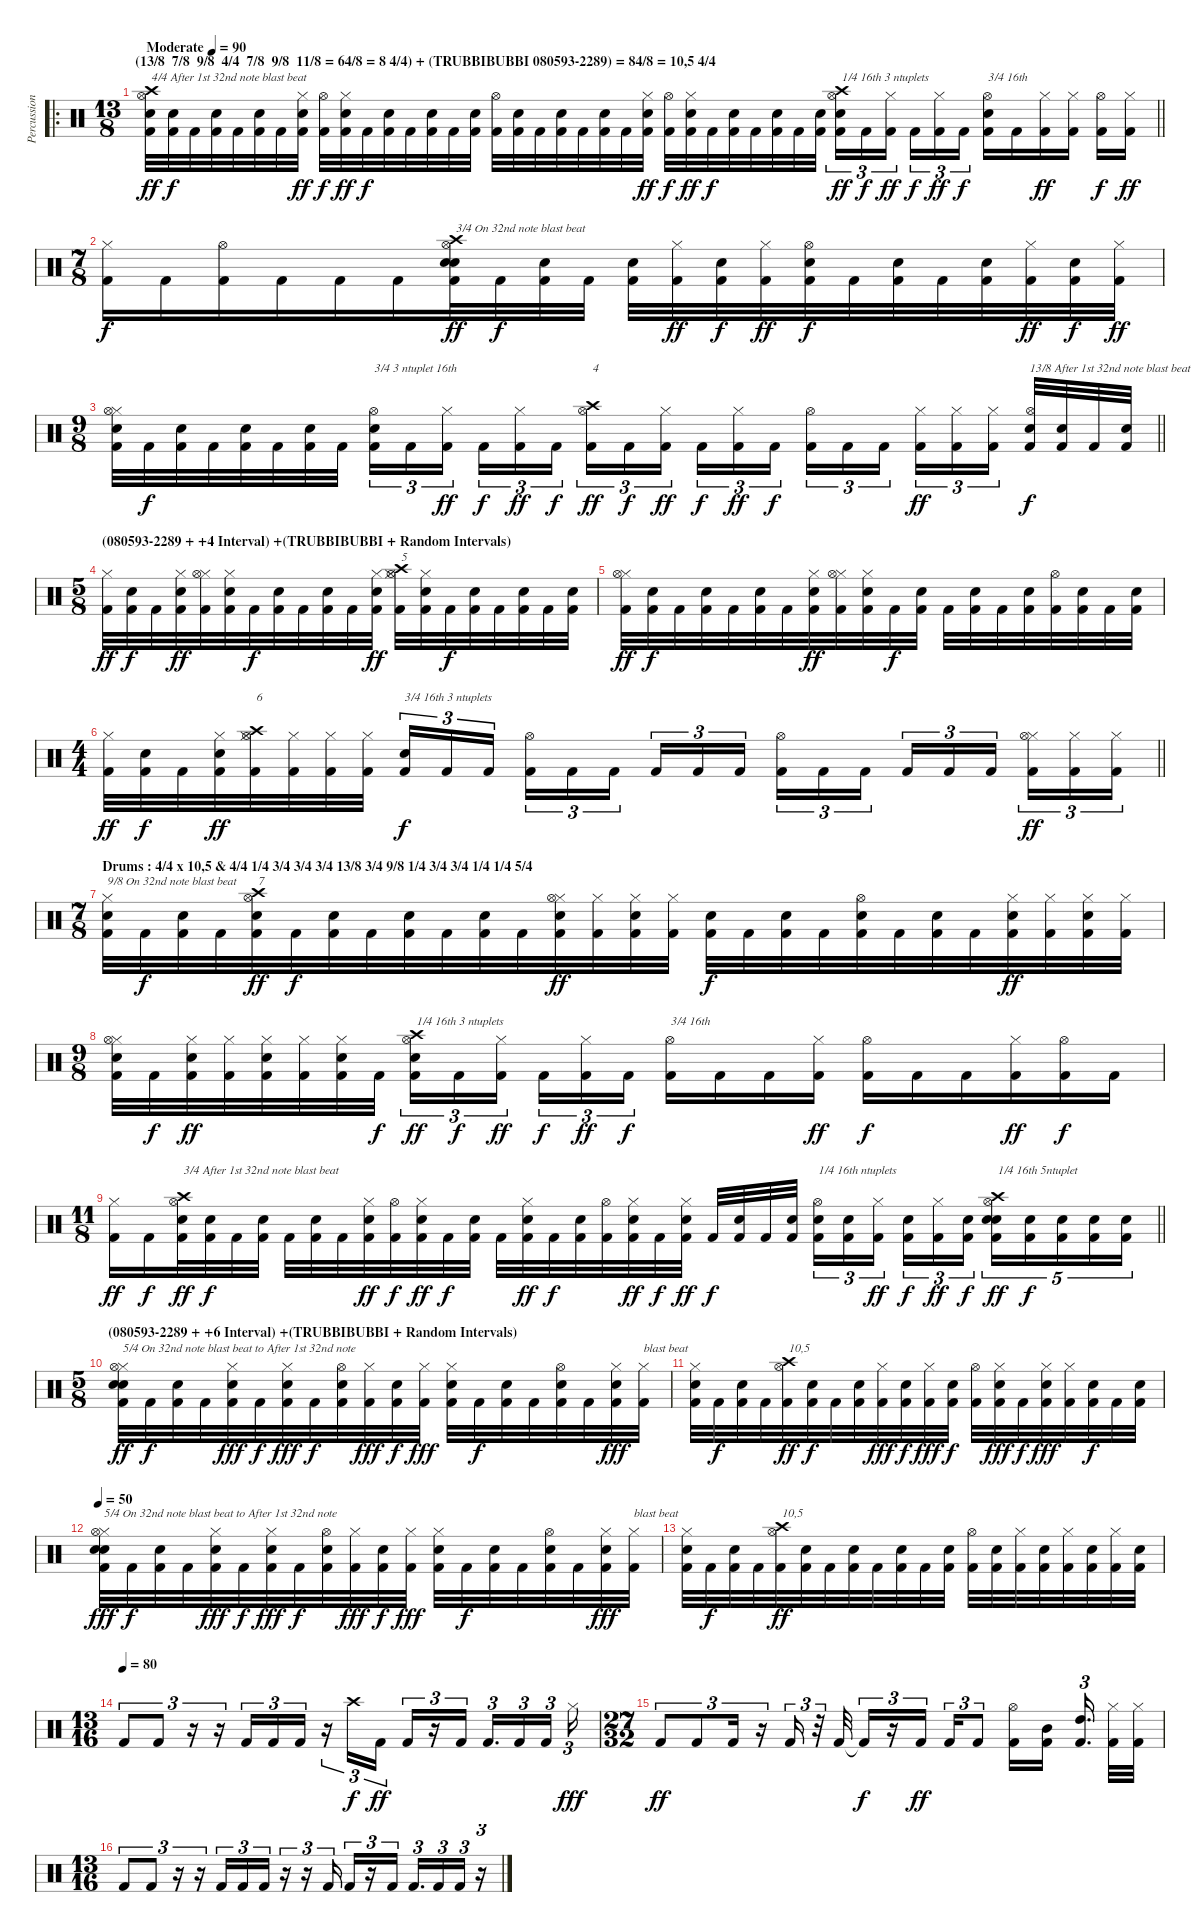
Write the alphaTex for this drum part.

\track ("Percussion" "Percussion") {instrument percussion}
\staff {score}
\articulation defaults
\ro
\ts (13 8)
\section ("" "(13/8  7/8  9/8  4/4  7/8  9/8  11/8 = 64/8 = 8 4/4) + (TRUBBIBUBBI 080593-2289) = 84/8 = 10,5 4/4 ")
\tempo (90 "Moderate")
\clef neutral
\barLineRight lightlight
\ks c
("Crash high (hit)" "Snare (hit) 2" "Hi-Hat (open)" "Kick (hit) 2").32{txt "4/4 After 1st 32nd note blast beat " dy ff} ("Electric Snare (hit)" "Kick (hit) 2").32{dy f} "Kick (hit) 2".32 ("Electric Snare (hit)" "Kick (hit) 2").32 "Kick (hit) 2".32 ("Electric Snare (hit)" "Kick (hit) 2").32 "Kick (hit) 2".32 ("Hi-Hat (closed)" "Electric Snare (hit)" "Kick (hit) 2").32{dy ff} ("Hi-Hat (open)" "Kick (hit) 2").32{dy f} ("Hi-Hat (closed)" "Electric Snare (hit)" "Kick (hit) 2").32{dy ff} "Kick (hit) 2".32{dy f} ("Electric Snare (hit)" "Kick (hit) 2").32 "Kick (hit) 2".32 ("Electric Snare (hit)" "Kick (hit) 2").32 "Kick (hit) 2".32 ("Electric Snare (hit)" "Kick (hit) 2").32 ("Hi-Hat (open)" "Kick (hit) 2").32 ("Electric Snare (hit)" "Kick (hit) 2").32 "Kick (hit) 2".32 ("Electric Snare (hit)" "Kick (hit) 2").32 "Kick (hit) 2".32 ("Electric Snare (hit)" "Kick (hit) 2").32 "Kick (hit) 2".32 ("Hi-Hat (closed)" "Electric Snare (hit)" "Kick (hit) 2").32{dy ff} ("Hi-Hat (open)" "Kick (hit) 2").32{dy f} ("Hi-Hat (closed)" "Electric Snare (hit)" "Kick (hit) 2").32{dy ff} "Kick (hit) 2".32{dy f} ("Electric Snare (hit)" "Kick (hit) 2").32 "Kick (hit) 2".32 ("Electric Snare (hit)" "Kick (hit) 2").32 "Kick (hit) 2".32 ("Electric Snare (hit)" "Kick (hit) 2").32 ("Crash high (hit)" "Snare (hit) 2" "Hi-Hat (open)" "Kick (hit) 2").16{tu (3 2) txt "1/4 16th 3 ntuplets" dy ff} "Kick (hit) 2".16{tu (3 2) dy f} ("Hi-Hat (closed)" "Kick (hit) 2").16{tu (3 2) dy ff} "Kick (hit) 2".16{tu (3 2) dy f} ("Hi-Hat (closed)" "Kick (hit) 2").16{tu (3 2) dy ff} "Kick (hit) 2".16{tu (3 2) dy f} ("Snare (hit) 2" "Hi-Hat (open)" "Kick (hit) 2").16{txt "3/4 16th"} "Kick (hit) 2".16 ("Hi-Hat (closed)" "Kick (hit) 2").16{dy ff} ("Hi-Hat (closed)" "Kick (hit) 2").16 ("Hi-Hat (open)" "Kick (hit) 2").16{dy f} ("Hi-Hat (closed)" "Kick (hit) 2").16{dy ff} |
\ts (7 8)
\section ("" "")
("Hi-Hat (closed)" "Kick (hit) 2").16{dy f} "Kick (hit) 2".16 ("Hi-Hat (open)" "Kick (hit) 2").16 "Kick (hit) 2".16 "Kick (hit) 2".16 "Kick (hit) 2".16 ("Crash high (hit)" "Snare (hit) 2" "Hi-Hat (open)" "Electric Snare (hit)" "Kick (hit) 2").32{txt "3/4 On 32nd note blast beat " dy ff} "Kick (hit) 2".32{dy f} ("Electric Snare (hit)" "Kick (hit) 2").32 "Kick (hit) 2".32 ("Electric Snare (hit)" "Kick (hit) 2").32 ("Hi-Hat (closed)" "Kick (hit) 2").32{dy ff} ("Electric Snare (hit)" "Kick (hit) 2").32{dy f} ("Hi-Hat (closed)" "Kick (hit) 2").32{dy ff} ("Hi-Hat (open)" "Electric Snare (hit)" "Kick (hit) 2").32{dy f} "Kick (hit) 2".32 ("Electric Snare (hit)" "Kick (hit) 2").32 "Kick (hit) 2".32 ("Electric Snare (hit)" "Kick (hit) 2").32 ("Hi-Hat (closed)" "Kick (hit) 2").32{dy ff} ("Electric Snare (hit)" "Kick (hit) 2").32{dy f} ("Hi-Hat (closed)" "Kick (hit) 2").32{dy ff} |
\ts (9 8)
\barLineRight lightlight
("Hi-Hat (closed)" "Hi-Hat (open)" "Electric Snare (hit)" "Kick (hit) 2").32 "Kick (hit) 2".32{dy f} ("Electric Snare (hit)" "Kick (hit) 2").32 "Kick (hit) 2".32 ("Electric Snare (hit)" "Kick (hit) 2").32 "Kick (hit) 2".32 ("Electric Snare (hit)" "Kick (hit) 2").32 "Kick (hit) 2".32{beam splitsecondary} ("Snare (hit) 2" "Hi-Hat (open)" "Kick (hit) 2").16{tu (3 2) txt "3/4 3 ntuplet 16th"} "Kick (hit) 2".16{tu (3 2)} ("Hi-Hat (closed)" "Kick (hit) 2").16{tu (3 2) dy ff} "Kick (hit) 2".16{tu (3 2) dy f} ("Hi-Hat (closed)" "Kick (hit) 2").16{tu (3 2) dy ff} "Kick (hit) 2".16{tu (3 2) dy f beam splitsecondary} ("Crash high (hit)" "Hi-Hat (open)" "Kick (hit) 2").16{tu (3 2) txt "4" dy ff} "Kick (hit) 2".16{tu (3 2) dy f} ("Hi-Hat (closed)" "Kick (hit) 2").16{tu (3 2) dy ff beam splitsecondary} "Kick (hit) 2".16{tu (3 2) dy f} ("Hi-Hat (closed)" "Kick (hit) 2").16{tu (3 2) dy ff} "Kick (hit) 2".16{tu (3 2) dy f} ("Hi-Hat (open)" "Kick (hit) 2").16{tu (3 2)} "Kick (hit) 2".16{tu (3 2)} "Kick (hit) 2".16{tu (3 2) beam splitsecondary} ("Hi-Hat (closed)" "Kick (hit) 2").16{tu (3 2) dy ff} ("Hi-Hat (closed)" "Kick (hit) 2").16{tu (3 2)} ("Hi-Hat (closed)" "Kick (hit) 2").16{tu (3 2) beam splitsecondary} ("Snare (hit) 2" "Hi-Hat (open)" "Kick (hit) 2").32{txt "13/8 After 1st 32nd note blast beat " dy f} ("Electric Snare (hit)" "Kick (hit) 2").32 "Kick (hit) 2".32 ("Electric Snare (hit)" "Kick (hit) 2").32 |
\ts (5 8)
\section ("" "(080593-2289 + +4 Interval) +(TRUBBIBUBBI + Random Intervals)")
("Hi-Hat (closed)" "Kick (hit) 2").32{dy ff} ("Electric Snare (hit)" "Kick (hit) 2").32{dy f} "Kick (hit) 2".32 ("Hi-Hat (closed)" "Electric Snare (hit)" "Kick (hit) 2").32{dy ff} ("Hi-Hat (closed)" "Hi-Hat (open)" "Kick (hit) 2").32 ("Hi-Hat (closed)" "Electric Snare (hit)" "Kick (hit) 2").32 "Kick (hit) 2".32{dy f} ("Electric Snare (hit)" "Kick (hit) 2").32 "Kick (hit) 2".32 ("Electric Snare (hit)" "Kick (hit) 2").32 "Kick (hit) 2".32 ("Hi-Hat (closed)" "Electric Snare (hit)" "Kick (hit) 2").32{dy ff} ("Crash high (hit)" "Hi-Hat (closed)" "Hi-Hat (open)" "Kick (hit) 2").32{txt "5"} ("Hi-Hat (closed)" "Electric Snare (hit)" "Kick (hit) 2").32 "Kick (hit) 2".32{dy f} ("Electric Snare (hit)" "Kick (hit) 2").32 "Kick (hit) 2".32 ("Electric Snare (hit)" "Kick (hit) 2").32 "Kick (hit) 2".32 ("Electric Snare (hit)" "Kick (hit) 2").32 |
("Hi-Hat (closed)" "Hi-Hat (open)" "Kick (hit) 2").32{dy ff} ("Electric Snare (hit)" "Kick (hit) 2").32{dy f} "Kick (hit) 2".32 ("Electric Snare (hit)" "Kick (hit) 2").32 "Kick (hit) 2".32 ("Electric Snare (hit)" "Kick (hit) 2").32 "Kick (hit) 2".32 ("Hi-Hat (closed)" "Electric Snare (hit)" "Kick (hit) 2").32{dy ff} ("Hi-Hat (closed)" "Hi-Hat (open)" "Kick (hit) 2").32 ("Hi-Hat (closed)" "Electric Snare (hit)" "Kick (hit) 2").32 "Kick (hit) 2".32{dy f} ("Electric Snare (hit)" "Kick (hit) 2").32 "Kick (hit) 2".32 ("Electric Snare (hit)" "Kick (hit) 2").32 "Kick (hit) 2".32 ("Electric Snare (hit)" "Kick (hit) 2").32 ("Hi-Hat (open)" "Kick (hit) 2").32 ("Electric Snare (hit)" "Kick (hit) 2").32 "Kick (hit) 2".32 ("Electric Snare (hit)" "Kick (hit) 2").32 |
\ts (4 4)
\barLineRight lightlight
("Hi-Hat (closed)" "Kick (hit) 2").32{dy ff} ("Electric Snare (hit)" "Kick (hit) 2").32{dy f} "Kick (hit) 2".32 ("Hi-Hat (closed)" "Electric Snare (hit)" "Kick (hit) 2").32{dy ff} ("Crash high (hit)" "Hi-Hat (closed)" "Hi-Hat (open)" "Kick (hit) 2").32{txt "6"} ("Hi-Hat (closed)" "Kick (hit) 2").32 ("Hi-Hat (closed)" "Kick (hit) 2").32 ("Hi-Hat (closed)" "Kick (hit) 2").32 ("Snare (hit) 2" "Kick (hit) 2").16{tu (3 2) txt "3/4 16th 3 ntuplets" dy f} "Kick (hit) 2".16{tu (3 2)} "Kick (hit) 2".16{tu (3 2)} ("Hi-Hat (open)" "Kick (hit) 2").16{tu (3 2)} "Kick (hit) 2".16{tu (3 2)} "Kick (hit) 2".16{tu (3 2)} "Kick (hit) 2".16{tu (3 2)} "Kick (hit) 2".16{tu (3 2)} "Kick (hit) 2".16{tu (3 2)} ("Hi-Hat (open)" "Kick (hit) 2").16{tu (3 2)} "Kick (hit) 2".16{tu (3 2)} "Kick (hit) 2".16{tu (3 2)} "Kick (hit) 2".16{tu (3 2)} "Kick (hit) 2".16{tu (3 2)} "Kick (hit) 2".16{tu (3 2)} ("Hi-Hat (closed)" "Hi-Hat (open)" "Kick (hit) 2").16{tu (3 2) dy ff} ("Hi-Hat (closed)" "Kick (hit) 2").16{tu (3 2)} ("Hi-Hat (closed)" "Kick (hit) 2").16{tu (3 2)} |
\ts (7 8)
\section ("" "Drums : 4/4 x 10,5 & 4/4 1/4 3/4 3/4 3/4 13/8 3/4 9/8 1/4 3/4 3/4 1/4 1/4 5/4")
("Hi-Hat (closed)" "Electric Snare (hit)" "Kick (hit) 2").32{txt "9/8 On 32nd note blast beat"} "Kick (hit) 2".32{dy f} ("Electric Snare (hit)" "Kick (hit) 2").32 "Kick (hit) 2".32 ("Crash high (hit)" "Hi-Hat (open)" "Electric Snare (hit)" "Kick (hit) 2").32{txt "7" dy ff} "Kick (hit) 2".32{dy f} ("Electric Snare (hit)" "Kick (hit) 2").32 "Kick (hit) 2".32 ("Electric Snare (hit)" "Kick (hit) 2").32 "Kick (hit) 2".32 ("Electric Snare (hit)" "Kick (hit) 2").32 "Kick (hit) 2".32 ("Hi-Hat (closed)" "Hi-Hat (open)" "Electric Snare (hit)" "Kick (hit) 2").32{dy ff} ("Hi-Hat (closed)" "Kick (hit) 2").32 ("Hi-Hat (closed)" "Electric Snare (hit)" "Kick (hit) 2").32 ("Hi-Hat (closed)" "Kick (hit) 2").32 ("Electric Snare (hit)" "Kick (hit) 2").32{dy f} "Kick (hit) 2".32 ("Electric Snare (hit)" "Kick (hit) 2").32 "Kick (hit) 2".32 ("Hi-Hat (open)" "Electric Snare (hit)" "Kick (hit) 2").32 "Kick (hit) 2".32 ("Electric Snare (hit)" "Kick (hit) 2").32 "Kick (hit) 2".32 ("Hi-Hat (closed)" "Electric Snare (hit)" "Kick (hit) 2").32{dy ff} ("Hi-Hat (closed)" "Kick (hit) 2").32 ("Hi-Hat (closed)" "Electric Snare (hit)" "Kick (hit) 2").32 ("Hi-Hat (closed)" "Kick (hit) 2").32 |
\ts (9 8)
("Hi-Hat (closed)" "Hi-Hat (open)" "Electric Snare (hit)" "Kick (hit) 2").32 "Kick (hit) 2".32{dy f} ("Hi-Hat (closed)" "Electric Snare (hit)" "Kick (hit) 2").32{dy ff} ("Hi-Hat (closed)" "Kick (hit) 2").32 ("Hi-Hat (closed)" "Electric Snare (hit)" "Kick (hit) 2").32 ("Hi-Hat (closed)" "Kick (hit) 2").32 ("Hi-Hat (closed)" "Electric Snare (hit)" "Kick (hit) 2").32 "Kick (hit) 2".32{dy f beam splitsecondary} ("Crash high (hit)" "Snare (hit) 2" "Hi-Hat (open)" "Kick (hit) 2").16{tu (3 2) txt "1/4 16th 3 ntuplets" dy ff} "Kick (hit) 2".16{tu (3 2) dy f} ("Hi-Hat (closed)" "Kick (hit) 2").16{tu (3 2) dy ff} "Kick (hit) 2".16{tu (3 2) dy f} ("Hi-Hat (closed)" "Kick (hit) 2").16{tu (3 2) dy ff} "Kick (hit) 2".16{tu (3 2) dy f beam splitsecondary} ("Hi-Hat (open)" "Kick (hit) 2").16{txt "3/4 16th"} "Kick (hit) 2".16 "Kick (hit) 2".16 ("Hi-Hat (closed)" "Kick (hit) 2").16{dy ff} ("Hi-Hat (open)" "Kick (hit) 2").16{dy f} "Kick (hit) 2".16 "Kick (hit) 2".16 ("Hi-Hat (closed)" "Kick (hit) 2").16{dy ff} ("Hi-Hat (open)" "Kick (hit) 2").16{dy f} "Kick (hit) 2".16 |
\ts (11 8)
\barLineRight lightlight
("Hi-Hat (closed)" "Kick (hit) 2").16{dy ff} "Kick (hit) 2".16{dy f} ("Crash high (hit)" "Snare (hit) 2" "Hi-Hat (open)" "Kick (hit) 2").32{txt "3/4 After 1st 32nd note blast beat" dy ff} ("Electric Snare (hit)" "Kick (hit) 2").32{dy f} "Kick (hit) 2".32 ("Electric Snare (hit)" "Kick (hit) 2").32 "Kick (hit) 2".32 ("Electric Snare (hit)" "Kick (hit) 2").32 "Kick (hit) 2".32 ("Hi-Hat (closed)" "Electric Snare (hit)" "Kick (hit) 2").32{dy ff} ("Hi-Hat (open)" "Kick (hit) 2").32{dy f} ("Hi-Hat (closed)" "Electric Snare (hit)" "Kick (hit) 2").32{dy ff} "Kick (hit) 2".32{dy f} ("Electric Snare (hit)" "Kick (hit) 2").32 "Kick (hit) 2".32 ("Hi-Hat (closed)" "Electric Snare (hit)" "Kick (hit) 2").32{dy ff} "Kick (hit) 2".32{dy f} ("Electric Snare (hit)" "Kick (hit) 2").32 ("Hi-Hat (open)" "Kick (hit) 2").32 ("Hi-Hat (closed)" "Electric Snare (hit)" "Kick (hit) 2").32{dy ff} "Kick (hit) 2".32{dy f} ("Hi-Hat (closed)" "Electric Snare (hit)" "Kick (hit) 2").32{dy ff} "Kick (hit) 2".32{dy f} ("Electric Snare (hit)" "Kick (hit) 2").32 "Kick (hit) 2".32 ("Electric Snare (hit)" "Kick (hit) 2").32 ("Snare (hit) 2" "Hi-Hat (open)" "Kick (hit) 2").16{tu (3 2) txt "1/4 16th ntuplets"} ("Electric Snare (hit)" "Kick (hit) 2").16{tu (3 2)} ("Hi-Hat (closed)" "Kick (hit) 2").16{tu (3 2) dy ff} ("Electric Snare (hit)" "Kick (hit) 2").16{tu (3 2) dy f} ("Hi-Hat (closed)" "Kick (hit) 2").16{tu (3 2) dy ff} ("Electric Snare (hit)" "Kick (hit) 2").16{tu (3 2) dy f} ("Crash high (hit)" "Snare (hit) 2" "Hi-Hat (open)" "Electric Snare (hit)" "Kick (hit) 2").16{tu (5 4) txt "1/4 16th 5ntuplet" dy ff} ("Electric Snare (hit)" "Kick (hit) 2").16{tu (5 4) dy f} ("Electric Snare (hit)" "Kick (hit) 2").16{tu (5 4)} ("Electric Snare (hit)" "Kick (hit) 2").16{tu (5 4)} ("Electric Snare (hit)" "Kick (hit) 2").16{tu (5 4)} |
\ts (5 8)
\section ("" "(080593-2289 + +6 Interval) +(TRUBBIBUBBI + Random Intervals)")
("Hi-Hat (closed)" "Snare (hit) 2" "Hi-Hat (open)" "Electric Snare (hit)" "Kick (hit) 2").32{txt "5/4 On 32nd note blast beat to After 1st 32nd note" dy ff} "Kick (hit) 2".32{dy f} ("Electric Snare (hit)" "Kick (hit) 2").32 "Kick (hit) 2".32 ("Hi-Hat (closed)" "Electric Snare (hit)" "Kick (hit) 2").32{dy fff} "Kick (hit) 2".32{dy f} ("Hi-Hat (closed)" "Electric Snare (hit)" "Kick (hit) 2").32{dy fff} "Kick (hit) 2".32{dy f} ("Hi-Hat (open)" "Electric Snare (hit)" "Kick (hit) 2").32 ("Hi-Hat (closed)" "Kick (hit) 2").32{dy fff} ("Electric Snare (hit)" "Kick (hit) 2").32{dy f} ("Hi-Hat (closed)" "Kick (hit) 2").32{dy fff} ("Hi-Hat (closed)" "Electric Snare (hit)" "Kick (hit) 2").32 "Kick (hit) 2".32{dy f} ("Electric Snare (hit)" "Kick (hit) 2").32 "Kick (hit) 2".32 ("Hi-Hat (open)" "Electric Snare (hit)" "Kick (hit) 2").32 "Kick (hit) 2".32 ("Hi-Hat (closed)" "Electric Snare (hit)" "Kick (hit) 2").32{dy fff} ("Hi-Hat (closed)" "Kick (hit) 2").32{txt "blast beat"} |
("Hi-Hat (closed)" "Electric Snare (hit)" "Kick (hit) 2").32 "Kick (hit) 2".32{dy f} ("Electric Snare (hit)" "Kick (hit) 2").32 "Kick (hit) 2".32 ("Crash high (hit)" "Hi-Hat (open)" "Kick (hit) 2").32{txt "10,5" dy ff} ("Electric Snare (hit)" "Kick (hit) 2").32{dy f} "Kick (hit) 2".32 ("Electric Snare (hit)" "Kick (hit) 2").32 ("Hi-Hat (closed)" "Kick (hit) 2").32{dy fff} ("Electric Snare (hit)" "Kick (hit) 2").32{dy f} ("Hi-Hat (closed)" "Kick (hit) 2").32{dy fff} ("Electric Snare (hit)" "Kick (hit) 2").32{dy f} ("Hi-Hat (open)" "Kick (hit) 2").32 ("Hi-Hat (closed)" "Electric Snare (hit)" "Kick (hit) 2").32{dy fff} "Kick (hit) 2".32{dy f} ("Hi-Hat (closed)" "Electric Snare (hit)" "Kick (hit) 2").32{dy fff} ("Hi-Hat (closed)" "Kick (hit) 2").32 ("Electric Snare (hit)" "Kick (hit) 2").32{dy f} "Kick (hit) 2".32 ("Electric Snare (hit)" "Kick (hit) 2").32 |
\tempo 50
("Hi-Hat (closed)" "Snare (hit) 2" "Hi-Hat (open)" "Electric Snare (hit)" "Kick (hit) 2").32{txt "5/4 On 32nd note blast beat to After 1st 32nd note" dy fff} "Kick (hit) 2".32{dy f} ("Electric Snare (hit)" "Kick (hit) 2").32 "Kick (hit) 2".32 ("Hi-Hat (closed)" "Electric Snare (hit)" "Kick (hit) 2").32{dy fff} "Kick (hit) 2".32{dy f} ("Hi-Hat (closed)" "Electric Snare (hit)" "Kick (hit) 2").32{dy fff} "Kick (hit) 2".32{dy f} ("Hi-Hat (open)" "Electric Snare (hit)" "Kick (hit) 2").32 ("Hi-Hat (closed)" "Kick (hit) 2").32{dy fff} ("Electric Snare (hit)" "Kick (hit) 2").32{dy f} ("Hi-Hat (closed)" "Kick (hit) 2").32{dy fff} ("Hi-Hat (closed)" "Electric Snare (hit)" "Kick (hit) 2").32 "Kick (hit) 2".32{dy f} ("Electric Snare (hit)" "Kick (hit) 2").32 "Kick (hit) 2".32 ("Hi-Hat (open)" "Electric Snare (hit)" "Kick (hit) 2").32 "Kick (hit) 2".32 ("Hi-Hat (closed)" "Electric Snare (hit)" "Kick (hit) 2").32{dy fff} ("Hi-Hat (closed)" "Kick (hit) 2").32{txt "blast beat"} |
("Hi-Hat (closed)" "Electric Snare (hit)" "Kick (hit) 2").32 "Kick (hit) 2".32{dy f} ("Electric Snare (hit)" "Kick (hit) 2").32 "Kick (hit) 2".32 ("Crash high (hit)" "Hi-Hat (open)" "Kick (hit) 2").32{txt "10,5" dy ff} ("Electric Snare (hit)" "Kick (hit) 2").32 "Kick (hit) 2".32 ("Electric Snare (hit)" "Kick (hit) 2").32 "Kick (hit) 2".32 ("Electric Snare (hit)" "Kick (hit) 2").32 "Kick (hit) 2".32 ("Electric Snare (hit)" "Kick (hit) 2").32 ("Hi-Hat (open)" "Kick (hit) 2").32 ("Electric Snare (hit)" "Kick (hit) 2").32 ("Hi-Hat (closed)" "Kick (hit) 2").32 ("Electric Snare (hit)" "Kick (hit) 2").32 ("Hi-Hat (closed)" "Kick (hit) 2").32 ("Electric Snare (hit)" "Kick (hit) 2").32 ("Hi-Hat (closed)" "Kick (hit) 2").32 ("Electric Snare (hit)" "Kick (hit) 2").32 |
\ts (13 16)
\tempo (80)
"Kick (hit) 2".8{tu (3 2)} "Kick (hit) 2".8{tu (3 2)} r.16{tu (3 2)} r.16{tu (3 2)} "Kick (hit) 2".16{tu (3 2)} "Kick (hit) 2".16{tu (3 2)} "Kick (hit) 2".16{tu (3 2)} r.16{tu (3 2)} "Crash high (hit)".16{tu (3 2) dy f} "Kick (hit) 2".16{tu (3 2) dy ff} "Kick (hit) 2".16{tu (3 2)} r.16{tu (3 2)} "Kick (hit) 2".16{tu (3 2)} "Kick (hit) 2".16{d tu (3 2)} "Kick (hit) 2".16{tu (3 2)} "Kick (hit) 2".16{tu (3 2)} "Hi-Hat (closed)".16{tu (3 2) dy fff} |
\ts (27 32)
"Kick (hit) 2".8{tu (3 2) dy ff} "Kick (hit) 2".8{tu (3 2)} "Kick (hit) 2".16{tu (3 2)} r.16{tu (3 2)} "Kick (hit) 2".16{tu (3 2)} r.32{tu (3 2)} "Kick (hit) 2".32 "Kick (hit) 2"{t}.16{tu (3 2) dy f} r.16{tu (3 2)} "Kick (hit) 2".16{tu (3 2) dy ff} "Kick (hit) 2".16{tu (3 2)} "Kick (hit) 2".8{tu (3 2)} ("Hi-Hat (open)" "Kick (hit) 2").16 ("Mid Tom (hit)" "Kick (hit) 2").16 ("High Tom (hit)" "Kick (hit) 2").16{d tu (3 2)} ("Hi-Hat (closed)" "Kick (hit) 2").32 ("Hi-Hat (closed)" "Kick (hit) 2").32 |
\ts (13 16)
"Kick (hit) 2".8{tu (3 2)} "Kick (hit) 2".8{tu (3 2)} r.16{tu (3 2)} r.16{tu (3 2)} "Kick (hit) 2".16{tu (3 2)} "Kick (hit) 2".16{tu (3 2)} "Kick (hit) 2".16{tu (3 2)} r.16{tu (3 2)} r.16{tu (3 2)} "Kick (hit) 2".16{tu (3 2)} "Kick (hit) 2".16{tu (3 2)} r.16{tu (3 2)} "Kick (hit) 2".16{tu (3 2)} "Kick (hit) 2".16{d tu (3 2)} "Kick (hit) 2".16{tu (3 2)} "Kick (hit) 2".16{tu (3 2)} r.16{tu (3 2)}
